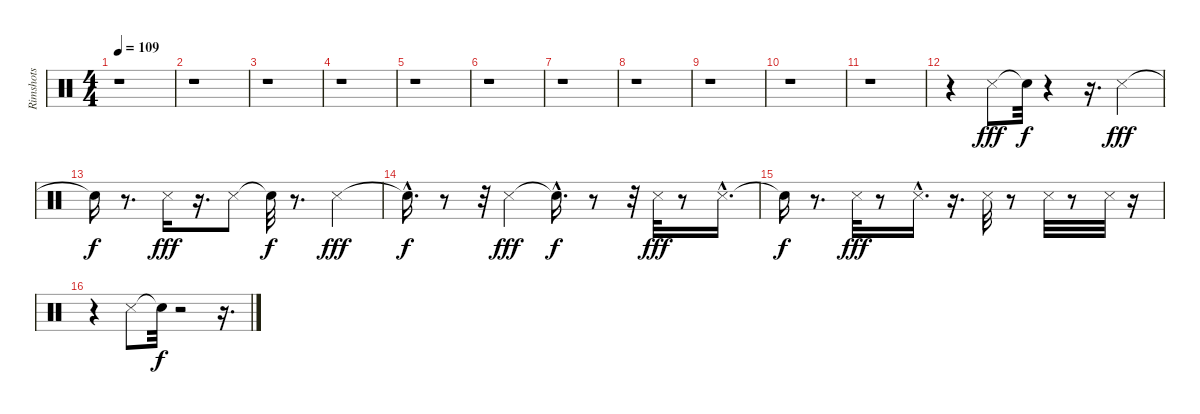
\track ("Rimshots        " "Rimshots  ") {instrument percussion}
\staff {score}
\articulation defaults
\ts (4 4)
\tempo 109
\clef neutral
\ks c
r.1{dy fff} |
r.1 |
r.1 |
r.1 |
r.1 |
r.1 |
r.1 |
r.1 |
r.1 |
r.1 |
r.1 |
r.4 "Snare (side stick) 3".8 "Snare (hit)"{t}.32{dy f} r.4 r.16{d} "Snare (side stick) 3".4{dy fff} |
"Snare (hit)"{t}.16{dy f} r.8{d} "Snare (side stick) 3".16{dy fff} r.16{d} "Snare (side stick) 3".8 "Snare (hit)"{t}.32{dy f} r.8{d} "Snare (side stick) 3".4{dy fff} |
"Snare (hit)"{hac t}.16{d dy f} r.8 r.32 "Snare (side stick) 3".4{dy fff} "Snare (hit)"{hac t}.16{d dy f} r.8 r.32 "Snare (side stick) 3".32{dy fff} r.8 "Snare (side stick) 3"{hac}.16{d} |
"Snare (hit)"{t}.16{dy f} r.8{d} "Snare (side stick) 3".32{dy fff} r.8 "Snare (side stick) 3"{hac}.16{d} r.16{d} "Snare (side stick) 3".32 r.8 "Snare (side stick) 3".32 r.8 "Snare (side stick) 3".32 r.16 |
r.4 "Snare (side stick) 3".8 "Snare (hit)"{t}.32{dy f} r.2 r.16{d}
